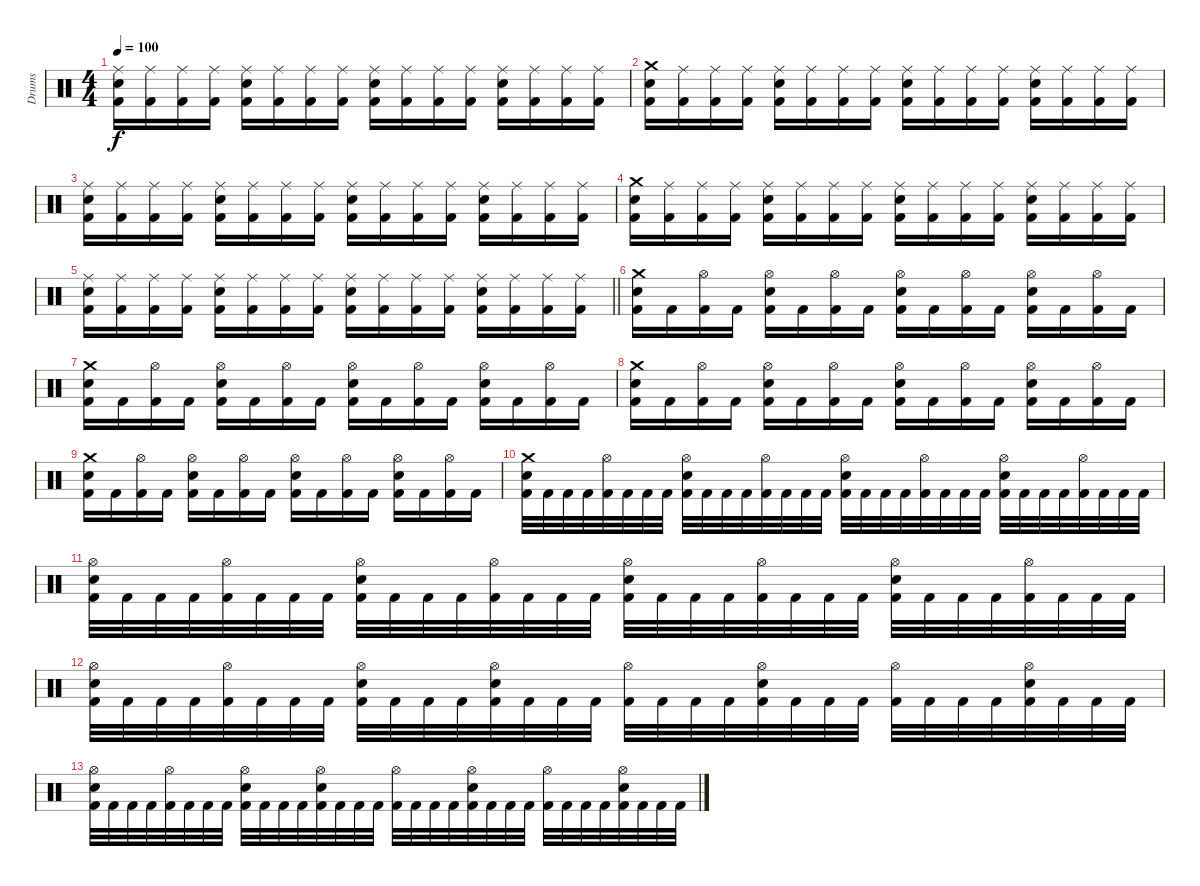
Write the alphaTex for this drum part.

\track ("Drums" "Drums") {instrument percussion}
\staff {score}
\articulation defaults
\ts (4 4)
\tempo 100
\clef neutral
\ks c
("Ride (middle)" "Snare (hit) 2" "Kick (hit) 2").16{dy f} ("Ride (middle)" "Kick (hit) 2").16 ("Ride (middle)" "Kick (hit) 2").16 ("Ride (middle)" "Kick (hit) 2").16 ("Ride (middle)" "Snare (hit) 2" "Kick (hit) 2").16 ("Ride (middle)" "Kick (hit) 2").16 ("Ride (middle)" "Kick (hit) 2").16 ("Ride (middle)" "Kick (hit) 2").16 ("Ride (middle)" "Snare (hit) 2" "Kick (hit) 2").16 ("Ride (middle)" "Kick (hit) 2").16 ("Ride (middle)" "Kick (hit) 2").16 ("Ride (middle)" "Kick (hit) 2").16 ("Ride (middle)" "Snare (hit) 2" "Kick (hit) 2").16 ("Ride (middle)" "Kick (hit) 2").16 ("Ride (middle)" "Kick (hit) 2").16 ("Ride (middle)" "Kick (hit) 2").16 |
("Crash medium (hit)" "Snare (hit) 2" "Kick (hit) 2").16 ("Ride (middle)" "Kick (hit) 2").16 ("Ride (middle)" "Kick (hit) 2").16 ("Ride (middle)" "Kick (hit) 2").16 ("Ride (middle)" "Snare (hit) 2" "Kick (hit) 2").16 ("Ride (middle)" "Kick (hit) 2").16 ("Ride (middle)" "Kick (hit) 2").16 ("Ride (middle)" "Kick (hit) 2").16 ("Ride (middle)" "Snare (hit) 2" "Kick (hit) 2").16 ("Ride (middle)" "Kick (hit) 2").16 ("Ride (middle)" "Kick (hit) 2").16 ("Ride (middle)" "Kick (hit) 2").16 ("Ride (middle)" "Snare (hit) 2" "Kick (hit) 2").16 ("Ride (middle)" "Kick (hit) 2").16 ("Ride (middle)" "Kick (hit) 2").16 ("Ride (middle)" "Kick (hit) 2").16 |
("Ride (middle)" "Snare (hit) 2" "Kick (hit) 2").16 ("Ride (middle)" "Kick (hit) 2").16 ("Ride (middle)" "Kick (hit) 2").16 ("Ride (middle)" "Kick (hit) 2").16 ("Ride (middle)" "Snare (hit) 2" "Kick (hit) 2").16 ("Ride (middle)" "Kick (hit) 2").16 ("Ride (middle)" "Kick (hit) 2").16 ("Ride (middle)" "Kick (hit) 2").16 ("Ride (middle)" "Snare (hit) 2" "Kick (hit) 2").16 ("Ride (middle)" "Kick (hit) 2").16 ("Ride (middle)" "Kick (hit) 2").16 ("Ride (middle)" "Kick (hit) 2").16 ("Ride (middle)" "Snare (hit) 2" "Kick (hit) 2").16 ("Ride (middle)" "Kick (hit) 2").16 ("Ride (middle)" "Kick (hit) 2").16 ("Ride (middle)" "Kick (hit) 2").16 |
("Crash medium (hit)" "Snare (hit) 2" "Kick (hit) 2").16 ("Ride (middle)" "Kick (hit) 2").16 ("Ride (middle)" "Kick (hit) 2").16 ("Ride (middle)" "Kick (hit) 2").16 ("Ride (middle)" "Snare (hit) 2" "Kick (hit) 2").16 ("Ride (middle)" "Kick (hit) 2").16 ("Ride (middle)" "Kick (hit) 2").16 ("Ride (middle)" "Kick (hit) 2").16 ("Ride (middle)" "Snare (hit) 2" "Kick (hit) 2").16 ("Ride (middle)" "Kick (hit) 2").16 ("Ride (middle)" "Kick (hit) 2").16 ("Ride (middle)" "Kick (hit) 2").16 ("Ride (middle)" "Snare (hit) 2" "Kick (hit) 2").16 ("Ride (middle)" "Kick (hit) 2").16 ("Ride (middle)" "Kick (hit) 2").16 ("Ride (middle)" "Kick (hit) 2").16 |
\barLineRight lightlight
("Ride (middle)" "Snare (hit) 2" "Kick (hit) 2").16 ("Ride (middle)" "Kick (hit) 2").16 ("Ride (middle)" "Kick (hit) 2").16 ("Ride (middle)" "Kick (hit) 2").16 ("Ride (middle)" "Snare (hit) 2" "Kick (hit) 2").16 ("Ride (middle)" "Kick (hit) 2").16 ("Ride (middle)" "Kick (hit) 2").16 ("Ride (middle)" "Kick (hit) 2").16 ("Ride (middle)" "Snare (hit) 2" "Kick (hit) 2").16 ("Ride (middle)" "Kick (hit) 2").16 ("Ride (middle)" "Kick (hit) 2").16 ("Ride (middle)" "Kick (hit) 2").16 ("Ride (middle)" "Snare (hit) 2" "Kick (hit) 2").16 ("Ride (middle)" "Kick (hit) 2").16 ("Ride (middle)" "Kick (hit) 2").16 ("Ride (middle)" "Kick (hit) 2").16 |
("Crash medium (hit)" "Snare (hit) 2" "Kick (hit) 2").16 "Kick (hit) 2".16 ("Hi-Hat (open)" "Kick (hit) 2").16 "Kick (hit) 2".16 ("Hi-Hat (open)" "Snare (hit) 2" "Kick (hit) 2").16 "Kick (hit) 2".16 ("Hi-Hat (open)" "Kick (hit) 2").16 "Kick (hit) 2".16 ("Hi-Hat (open)" "Snare (hit) 2" "Kick (hit) 2").16 "Kick (hit) 2".16 ("Hi-Hat (open)" "Kick (hit) 2").16 "Kick (hit) 2".16 ("Hi-Hat (open)" "Snare (hit) 2" "Kick (hit) 2").16 "Kick (hit) 2".16 ("Hi-Hat (open)" "Kick (hit) 2").16 "Kick (hit) 2".16 |
("Crash medium (hit)" "Snare (hit) 2" "Kick (hit) 2").16 "Kick (hit) 2".16 ("Hi-Hat (open)" "Kick (hit) 2").16 "Kick (hit) 2".16 ("Hi-Hat (open)" "Snare (hit) 2" "Kick (hit) 2").16 "Kick (hit) 2".16 ("Hi-Hat (open)" "Kick (hit) 2").16 "Kick (hit) 2".16 ("Hi-Hat (open)" "Snare (hit) 2" "Kick (hit) 2").16 "Kick (hit) 2".16 ("Hi-Hat (open)" "Kick (hit) 2").16 "Kick (hit) 2".16 ("Hi-Hat (open)" "Snare (hit) 2" "Kick (hit) 2").16 "Kick (hit) 2".16 ("Hi-Hat (open)" "Kick (hit) 2").16 "Kick (hit) 2".16 |
("Crash medium (hit)" "Snare (hit) 2" "Kick (hit) 2").16 "Kick (hit) 2".16 ("Hi-Hat (open)" "Kick (hit) 2").16 "Kick (hit) 2".16 ("Hi-Hat (open)" "Snare (hit) 2" "Kick (hit) 2").16 "Kick (hit) 2".16 ("Hi-Hat (open)" "Kick (hit) 2").16 "Kick (hit) 2".16 ("Hi-Hat (open)" "Snare (hit) 2" "Kick (hit) 2").16 "Kick (hit) 2".16 ("Hi-Hat (open)" "Kick (hit) 2").16 "Kick (hit) 2".16 ("Hi-Hat (open)" "Snare (hit) 2" "Kick (hit) 2").16 "Kick (hit) 2".16 ("Hi-Hat (open)" "Kick (hit) 2").16 "Kick (hit) 2".16 |
("Crash medium (hit)" "Snare (hit) 2" "Kick (hit) 2").16 "Kick (hit) 2".16 ("Hi-Hat (open)" "Kick (hit) 2").16 "Kick (hit) 2".16 ("Hi-Hat (open)" "Snare (hit) 2" "Kick (hit) 2").16 "Kick (hit) 2".16 ("Hi-Hat (open)" "Kick (hit) 2").16 "Kick (hit) 2".16 ("Hi-Hat (open)" "Snare (hit) 2" "Kick (hit) 2").16 "Kick (hit) 2".16 ("Hi-Hat (open)" "Kick (hit) 2").16 "Kick (hit) 2".16 ("Hi-Hat (open)" "Snare (hit) 2" "Kick (hit) 2").16 "Kick (hit) 2".16 ("Hi-Hat (open)" "Kick (hit) 2").16 "Kick (hit) 2".16 |
("Crash medium (hit)" "Snare (hit) 2" "Kick (hit) 2").32 "Kick (hit) 2".32 "Kick (hit) 2".32 "Kick (hit) 2".32 ("Hi-Hat (open)" "Kick (hit) 2").32 "Kick (hit) 2".32 "Kick (hit) 2".32 "Kick (hit) 2".32 ("Hi-Hat (open)" "Snare (hit) 2" "Kick (hit) 2").32 "Kick (hit) 2".32 "Kick (hit) 2".32 "Kick (hit) 2".32 ("Hi-Hat (open)" "Kick (hit) 2").32 "Kick (hit) 2".32 "Kick (hit) 2".32 "Kick (hit) 2".32 ("Hi-Hat (open)" "Snare (hit) 2" "Kick (hit) 2").32 "Kick (hit) 2".32 "Kick (hit) 2".32 "Kick (hit) 2".32 ("Hi-Hat (open)" "Kick (hit) 2").32 "Kick (hit) 2".32 "Kick (hit) 2".32 "Kick (hit) 2".32 ("Hi-Hat (open)" "Snare (hit) 2" "Kick (hit) 2").32 "Kick (hit) 2".32 "Kick (hit) 2".32 "Kick (hit) 2".32 ("Hi-Hat (open)" "Kick (hit) 2").32 "Kick (hit) 2".32 "Kick (hit) 2".32 "Kick (hit) 2".32 |
("Hi-Hat (open)" "Snare (hit) 2" "Kick (hit) 2").32 "Kick (hit) 2".32 "Kick (hit) 2".32 "Kick (hit) 2".32 ("Hi-Hat (open)" "Kick (hit) 2").32 "Kick (hit) 2".32 "Kick (hit) 2".32 "Kick (hit) 2".32 ("Hi-Hat (open)" "Snare (hit) 2" "Kick (hit) 2").32 "Kick (hit) 2".32 "Kick (hit) 2".32 "Kick (hit) 2".32 ("Hi-Hat (open)" "Kick (hit) 2").32 "Kick (hit) 2".32 "Kick (hit) 2".32 "Kick (hit) 2".32 ("Hi-Hat (open)" "Snare (hit) 2" "Kick (hit) 2").32 "Kick (hit) 2".32 "Kick (hit) 2".32 "Kick (hit) 2".32 ("Hi-Hat (open)" "Kick (hit) 2").32 "Kick (hit) 2".32 "Kick (hit) 2".32 "Kick (hit) 2".32 ("Hi-Hat (open)" "Snare (hit) 2" "Kick (hit) 2").32 "Kick (hit) 2".32 "Kick (hit) 2".32 "Kick (hit) 2".32 ("Hi-Hat (open)" "Kick (hit) 2").32 "Kick (hit) 2".32 "Kick (hit) 2".32 "Kick (hit) 2".32 |
("Snare (hit) 2" "Hi-Hat (open)" "Kick (hit) 2").32 "Kick (hit) 2".32 "Kick (hit) 2".32 "Kick (hit) 2".32 ("Hi-Hat (open)" "Kick (hit) 2").32 "Kick (hit) 2".32 "Kick (hit) 2".32 "Kick (hit) 2".32 ("Snare (hit) 2" "Hi-Hat (open)" "Kick (hit) 2").32 "Kick (hit) 2".32 "Kick (hit) 2".32 "Kick (hit) 2".32 ("Snare (hit) 2" "Hi-Hat (open)" "Kick (hit) 2").32 "Kick (hit) 2".32 "Kick (hit) 2".32 "Kick (hit) 2".32 ("Hi-Hat (open)" "Kick (hit) 2").32 "Kick (hit) 2".32 "Kick (hit) 2".32 "Kick (hit) 2".32 ("Snare (hit) 2" "Hi-Hat (open)" "Kick (hit) 2").32 "Kick (hit) 2".32 "Kick (hit) 2".32 "Kick (hit) 2".32 ("Hi-Hat (open)" "Kick (hit) 2").32 "Kick (hit) 2".32 "Kick (hit) 2".32 "Kick (hit) 2".32 ("Snare (hit) 2" "Hi-Hat (open)" "Kick (hit) 2").32 "Kick (hit) 2".32 "Kick (hit) 2".32 "Kick (hit) 2".32 |
("Snare (hit) 2" "Hi-Hat (open)" "Kick (hit) 2").32 "Kick (hit) 2".32 "Kick (hit) 2".32 "Kick (hit) 2".32 ("Hi-Hat (open)" "Kick (hit) 2").32 "Kick (hit) 2".32 "Kick (hit) 2".32 "Kick (hit) 2".32 ("Snare (hit) 2" "Hi-Hat (open)" "Kick (hit) 2").32 "Kick (hit) 2".32 "Kick (hit) 2".32 "Kick (hit) 2".32 ("Snare (hit) 2" "Hi-Hat (open)" "Kick (hit) 2").32 "Kick (hit) 2".32 "Kick (hit) 2".32 "Kick (hit) 2".32 ("Hi-Hat (open)" "Kick (hit) 2").32 "Kick (hit) 2".32 "Kick (hit) 2".32 "Kick (hit) 2".32 ("Snare (hit) 2" "Hi-Hat (open)" "Kick (hit) 2").32 "Kick (hit) 2".32 "Kick (hit) 2".32 "Kick (hit) 2".32 ("Hi-Hat (open)" "Kick (hit) 2").32 "Kick (hit) 2".32 "Kick (hit) 2".32 "Kick (hit) 2".32 ("Snare (hit) 2" "Hi-Hat (open)" "Kick (hit) 2").32 "Kick (hit) 2".32 "Kick (hit) 2".32 "Kick (hit) 2".32
